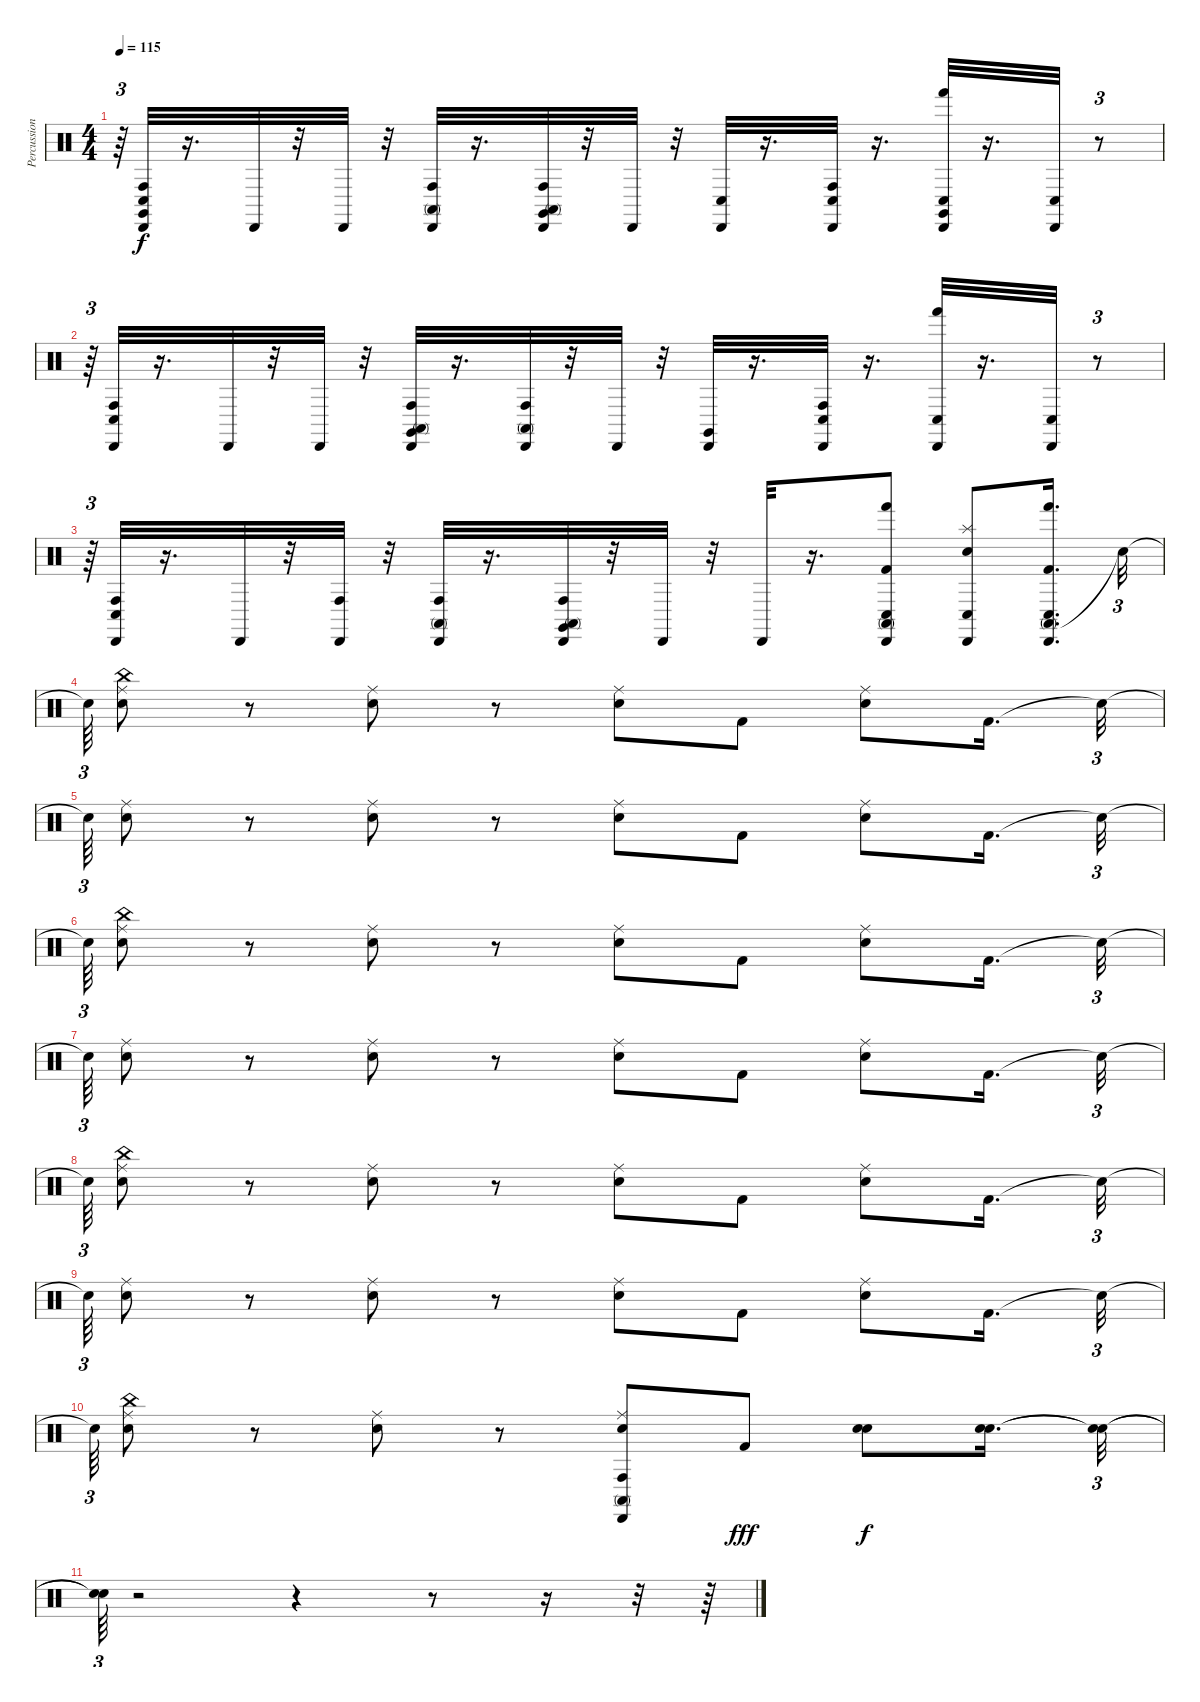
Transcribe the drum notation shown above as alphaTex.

\track ("Percussion" "Percussion") {instrument percussion}
\staff {score}
\articulation defaults
\ts (4 4)
\tempo 115
\clef neutral
\ks c
r.64{tu (3 2) dy f} ("Conga low (hit)" "Cabasa (hit)" "Claves (hit)" "Conga high (hit)").32 r.16{d} "Cabasa (hit)".32 r.32 "Cabasa (hit)".32 r.32 ("Cabasa (hit)" "Conga high (mute)" "Conga high (hit)").32 r.16{d} ("Conga high (hit)" "Cabasa (hit)" "Claves (hit)" "Conga high (mute)").32 r.32 "Cabasa (hit)".32 r.32 ("Conga low (hit)" "Cabasa (hit)").32 r.16{d} ("Conga high (hit)" "Cabasa (hit)" "Conga low (hit)").32 r.16{d} ("Claves (hit)" "Cabasa (hit)" "Conga low (hit)" "Hand (hit)").32 r.16{d} ("Conga low (hit)" "Cabasa (hit)").32 r.8{tu (3 2)} |
r.64{tu (3 2)} ("Cabasa (hit)" "Conga low (hit)" "Conga high (hit)").32 r.16{d} "Cabasa (hit)".32 r.32 "Cabasa (hit)".32 r.32 ("Conga high (hit)" "Claves (hit)" "Cabasa (hit)" "Conga high (mute)").32 r.16{d} ("Cabasa (hit)" "Conga high (hit)" "Conga high (mute)").32 r.32 "Cabasa (hit)".32 r.32 ("Cabasa (hit)" "Claves (hit)").32 r.16{d} ("Cabasa (hit)" "Conga high (hit)" "Conga low (hit)").32 r.16{d} ("Cabasa (hit)" "Conga low (hit)" "Hand (hit)").32 r.16{d} ("Conga low (hit)" "Cabasa (hit)").32 r.8{tu (3 2)} |
r.64{tu (3 2)} ("Cabasa (hit)" "Conga high (hit)" "Conga low (hit)").32 r.16{d} "Cabasa (hit)".32 r.32 ("Conga high (hit)" "Cabasa (hit)").32 r.32 ("Conga high (hit)" "Cabasa (hit)" "Conga high (mute)").32 r.16{d} ("Claves (hit)" "Conga high (hit)" "Cabasa (hit)" "Conga high (mute)").32 r.32 "Cabasa (hit)".32 r.32 "Cabasa (hit)".32 r.16{d} ("Conga high (mute)" "Cabasa (hit)" "Kick (hit) 2" "Conga low (hit)" "Hand (hit)").8 ("Splash (hit)" "Cabasa (hit)" "Conga low (hit)" "Electric Snare (hit)").8 ("Conga high (mute)" "Cabasa (hit)" "Kick (hit) 2" "Conga low (hit)" "Hand (hit)").16{d} "Snare (hit)"{t}.32{tu (3 2)} |
"Snare (hit)"{t}.64{tu (3 2)} ("Ride (middle)" "Electric Snare (hit)" "China (hit)").8 r.8 ("Ride (middle)" "Electric Snare (hit)").8 r.8 ("Ride (middle)" "Electric Snare (hit)").8 "Kick (hit) 2".8 ("Electric Snare (hit)" "Ride (middle)").8 "Kick (hit) 2".16{d} "Snare (hit)"{t}.32{tu (3 2)} |
"Snare (hit)"{t}.64{tu (3 2)} ("Ride (middle)" "Electric Snare (hit)").8 r.8 ("Ride (middle)" "Electric Snare (hit)").8 r.8 ("Ride (middle)" "Electric Snare (hit)").8 "Kick (hit) 2".8 ("Electric Snare (hit)" "Ride (middle)").8 "Kick (hit) 2".16{d} "Snare (hit)"{t}.32{tu (3 2)} |
"Snare (hit)"{t}.64{tu (3 2)} ("Ride (middle)" "China (hit)" "Electric Snare (hit)").8 r.8 ("Electric Snare (hit)" "Ride (middle)").8 r.8 ("Ride (middle)" "Electric Snare (hit)").8 "Kick (hit) 2".8 ("Ride (middle)" "Electric Snare (hit)").8 "Kick (hit) 2".16{d} "Snare (hit)"{t}.32{tu (3 2)} |
"Snare (hit)"{t}.64{tu (3 2)} ("Ride (middle)" "Electric Snare (hit)").8 r.8 ("Electric Snare (hit)" "Ride (middle)").8 r.8 ("Electric Snare (hit)" "Ride (middle)").8 "Kick (hit) 2".8 ("Electric Snare (hit)" "Ride (middle)").8 "Kick (hit) 2".16{d} "Snare (hit)"{t}.32{tu (3 2)} |
"Snare (hit)"{t}.64{tu (3 2)} ("Electric Snare (hit)" "Ride (middle)" "China (hit)").8 r.8 ("Ride (middle)" "Electric Snare (hit)").8 r.8 ("Ride (middle)" "Electric Snare (hit)").8 "Kick (hit) 2".8 ("Electric Snare (hit)" "Ride (middle)").8 "Kick (hit) 2".16{d} "Snare (hit)"{t}.32{tu (3 2)} |
"Snare (hit)"{t}.64{tu (3 2)} ("Electric Snare (hit)" "Ride (middle)").8 r.8 ("Electric Snare (hit)" "Ride (middle)").8 r.8 ("Ride (middle)" "Electric Snare (hit)").8 "Kick (hit) 2".8 ("Electric Snare (hit)" "Ride (middle)").8 "Kick (hit) 2".16{d} "Snare (hit)"{t}.32{tu (3 2)} |
"Snare (hit)"{t}.64{tu (3 2)} ("Electric Snare (hit)" "Ride (middle)" "China (hit)").8 r.8 ("Electric Snare (hit)" "Ride (middle)").8 r.8 ("Conga high (mute)" "Ride (middle)" "Cabasa (hit)" "Conga high (hit)" "Electric Snare (hit)").8 "Kick (hit) 2".8{dy fff} ("Snare (hit) 2" "Electric Snare (hit)").8{dy f} ("Snare (hit) 2" "Snare (hit) 2").16{d} ("Snare (hit)"{t} "Snare (hit)"{t}).32{tu (3 2)} |
("Snare (hit)"{t} "Snare (hit)"{t}).64{tu (3 2)} r.2 r.4 r.8 r.16 r.32 r.64
